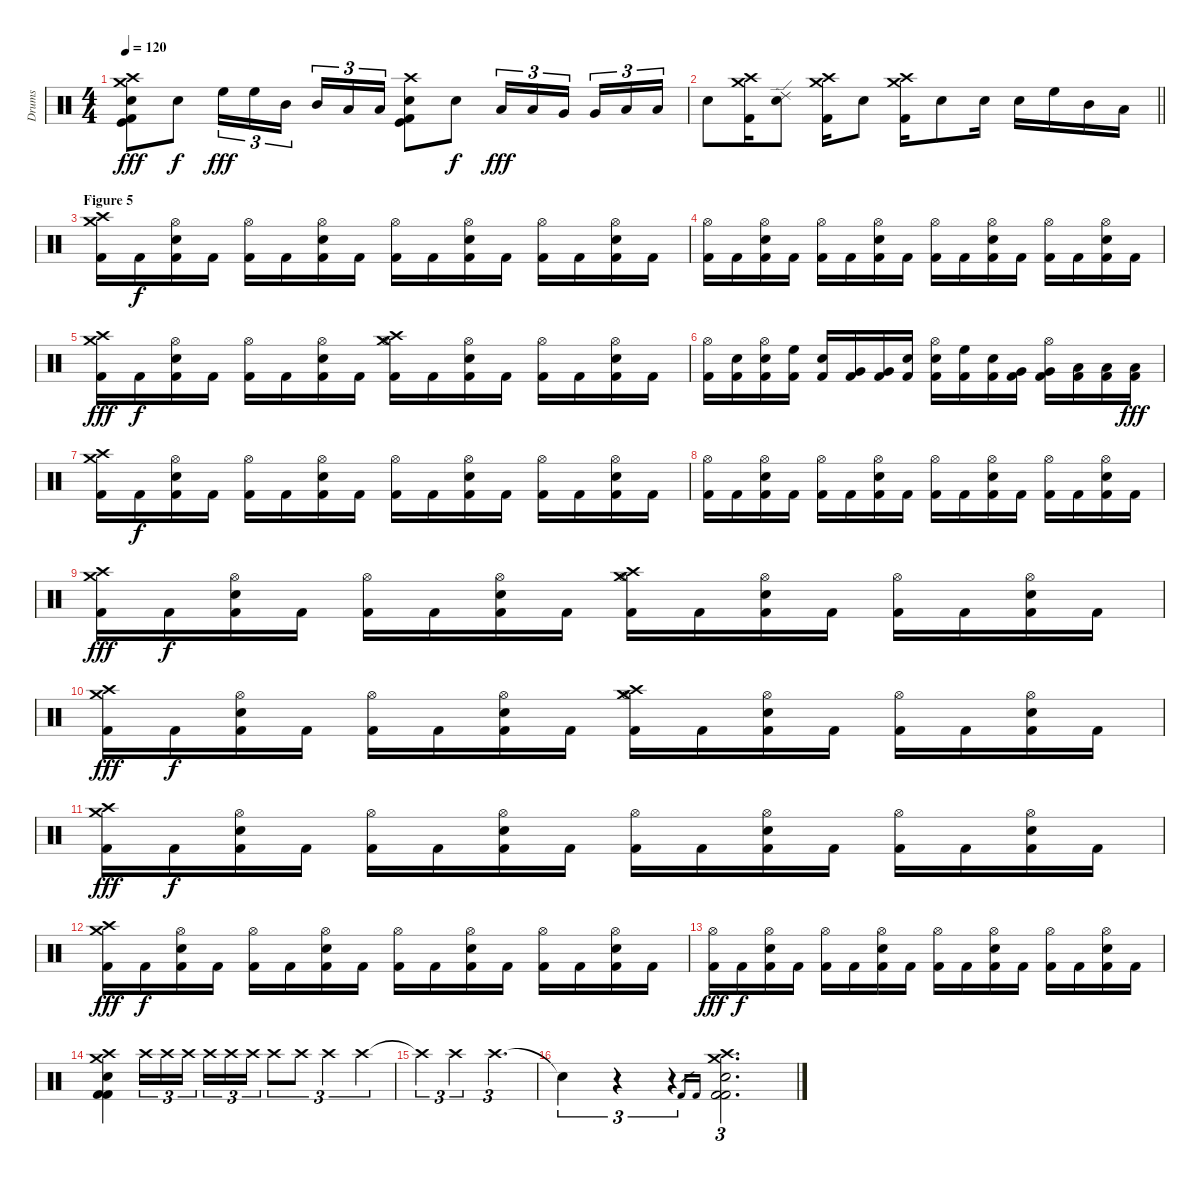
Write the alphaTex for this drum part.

\track ("Drums" "Drums") {instrument percussion}
\staff {score}
\articulation defaults
\ts (4 4)
\tempo 120
\clef neutral
\ks c
("Crash medium (hit)" "Crash high (hit)" "Electric Snare (hit)" "Kick (hit)" "Kick (hit) 2").8{dy fff} "Electric Snare (hit)".8{dy f} "High Floor Tom (hit)".16{tu (3 2) dy fff} "High Floor Tom (hit)".16{tu (3 2)} "Mid Tom (hit)".16{tu (3 2) beam splitsecondary} "Mid Tom (hit)".16{tu (3 2)} "Low Tom (hit)".16{tu (3 2)} "Low Tom (hit)".16{tu (3 2)} ("Crash high (hit)" "Electric Snare (hit)" "Kick (hit)" "Kick (hit) 2").8 "Electric Snare (hit)".8{dy f} "Low Tom (hit)".16{tu (3 2) dy fff} "Low Tom (hit)".16{tu (3 2)} "Very Low Tom (hit)".16{tu (3 2) beam splitsecondary} "Very Low Tom (hit)".16{tu (3 2)} "Low Floor Tom (hit)".16{tu (3 2)} "Low Floor Tom (hit)".16{tu (3 2)} |
\barLineRight lightlight "Electric Snare (hit)".8
("Crash high (hit)" "Crash medium (hit)" "Kick (hit) 2").16 ("Ride (edge) 2" "Electric Snare (hit)").8 ("Crash high (hit)" "Crash medium (hit)" "Kick (hit) 2").16 "Electric Snare (hit)".8 ("Crash medium (hit)" "Crash high (hit)" "Kick (hit) 2").16 "Electric Snare (hit)".8 "Electric Snare (hit)".16 "Electric Snare (hit)".16 "High Floor Tom (hit)".16 "Mid Tom (hit)".16 "Low Tom (hit)".16 |
\section ("" "Figure 5")
("Crash high (hit)" "Crash medium (hit)" "Kick (hit) 2").16 "Kick (hit) 2".16{dy f} ("Hi-Hat (open)" "Electric Snare (hit)" "Kick (hit) 2").16 "Kick (hit) 2".16 ("Hi-Hat (open)" "Kick (hit) 2").16 "Kick (hit) 2".16 ("Hi-Hat (open)" "Electric Snare (hit)" "Kick (hit) 2").16 "Kick (hit) 2".16 ("Hi-Hat (open)" "Kick (hit) 2").16 "Kick (hit) 2".16 ("Hi-Hat (open)" "Electric Snare (hit)" "Kick (hit) 2").16 "Kick (hit) 2".16 ("Hi-Hat (open)" "Kick (hit) 2").16 "Kick (hit) 2".16 ("Hi-Hat (open)" "Electric Snare (hit)" "Kick (hit) 2").16 "Kick (hit) 2".16 |
("Hi-Hat (open)" "Kick (hit) 2").16 "Kick (hit) 2".16 ("Hi-Hat (open)" "Electric Snare (hit)" "Kick (hit) 2").16 "Kick (hit) 2".16 ("Hi-Hat (open)" "Kick (hit) 2").16 "Kick (hit) 2".16 ("Hi-Hat (open)" "Electric Snare (hit)" "Kick (hit) 2").16 "Kick (hit) 2".16 ("Hi-Hat (open)" "Kick (hit) 2").16 "Kick (hit) 2".16 ("Hi-Hat (open)" "Electric Snare (hit)" "Kick (hit) 2").16 "Kick (hit) 2".16 ("Hi-Hat (open)" "Kick (hit) 2").16 "Kick (hit) 2".16 ("Hi-Hat (open)" "Electric Snare (hit)" "Kick (hit) 2").16 "Kick (hit) 2".16 |
("Crash high (hit)" "Crash medium (hit)" "Kick (hit) 2").16{dy fff} "Kick (hit) 2".16{dy f} ("Hi-Hat (open)" "Electric Snare (hit)" "Kick (hit) 2").16 "Kick (hit) 2".16 ("Hi-Hat (open)" "Kick (hit) 2").16 "Kick (hit) 2".16 ("Hi-Hat (open)" "Electric Snare (hit)" "Kick (hit) 2").16 "Kick (hit) 2".16 ("Crash medium (hit)" "Hi-Hat (open)" "Crash high (hit)" "Kick (hit) 2").16 "Kick (hit) 2".16 ("Hi-Hat (open)" "Electric Snare (hit)" "Kick (hit) 2").16 "Kick (hit) 2".16 ("Hi-Hat (open)" "Kick (hit) 2").16 "Kick (hit) 2".16 ("Hi-Hat (open)" "Electric Snare (hit)" "Kick (hit) 2").16 "Kick (hit) 2".16 |
("Hi-Hat (open)" "Kick (hit) 2").16 ("Electric Snare (hit)" "Kick (hit) 2").16 ("Hi-Hat (open)" "Electric Snare (hit)" "Kick (hit) 2").16 ("High Floor Tom (hit)" "Kick (hit) 2").16 ("Electric Snare (hit)" "Kick (hit) 2").16 ("Very Low Tom (hit)" "Kick (hit) 2").16 ("Very Low Tom (hit)" "Kick (hit) 2").16 ("Electric Snare (hit)" "Kick (hit) 2").16 ("Hi-Hat (open)" "Electric Snare (hit)" "Kick (hit) 2").16 ("High Floor Tom (hit)" "Kick (hit) 2").16 ("Electric Snare (hit)" "Kick (hit) 2").16 ("Very Low Tom (hit)" "Kick (hit) 2").16 ("Hi-Hat (open)" "Very Low Tom (hit)" "Kick (hit) 2").16 ("Low Tom (hit)" "Kick (hit) 2").16 ("Low Tom (hit)" "Kick (hit) 2").16 ("Low Floor Tom (hit)" "Kick (hit) 2").16{dy fff} |
("Crash high (hit)" "Crash medium (hit)" "Kick (hit) 2").16 "Kick (hit) 2".16{dy f} ("Hi-Hat (open)" "Electric Snare (hit)" "Kick (hit) 2").16 "Kick (hit) 2".16 ("Hi-Hat (open)" "Kick (hit) 2").16 "Kick (hit) 2".16 ("Hi-Hat (open)" "Electric Snare (hit)" "Kick (hit) 2").16 "Kick (hit) 2".16 ("Hi-Hat (open)" "Kick (hit) 2").16 "Kick (hit) 2".16 ("Hi-Hat (open)" "Electric Snare (hit)" "Kick (hit) 2").16 "Kick (hit) 2".16 ("Hi-Hat (open)" "Kick (hit) 2").16 "Kick (hit) 2".16 ("Hi-Hat (open)" "Electric Snare (hit)" "Kick (hit) 2").16 "Kick (hit) 2".16 |
("Hi-Hat (open)" "Kick (hit) 2").16 "Kick (hit) 2".16 ("Hi-Hat (open)" "Electric Snare (hit)" "Kick (hit) 2").16 "Kick (hit) 2".16 ("Hi-Hat (open)" "Kick (hit) 2").16 "Kick (hit) 2".16 ("Hi-Hat (open)" "Electric Snare (hit)" "Kick (hit) 2").16 "Kick (hit) 2".16 ("Hi-Hat (open)" "Kick (hit) 2").16 "Kick (hit) 2".16 ("Hi-Hat (open)" "Electric Snare (hit)" "Kick (hit) 2").16 "Kick (hit) 2".16 ("Hi-Hat (open)" "Kick (hit) 2").16 "Kick (hit) 2".16 ("Hi-Hat (open)" "Electric Snare (hit)" "Kick (hit) 2").16 "Kick (hit) 2".16 |
("Crash high (hit)" "Crash medium (hit)" "Kick (hit) 2").16{dy fff} "Kick (hit) 2".16{dy f} ("Hi-Hat (open)" "Electric Snare (hit)" "Kick (hit) 2").16 "Kick (hit) 2".16 ("Hi-Hat (open)" "Kick (hit) 2").16 "Kick (hit) 2".16 ("Hi-Hat (open)" "Electric Snare (hit)" "Kick (hit) 2").16 "Kick (hit) 2".16 ("Crash medium (hit)" "Hi-Hat (open)" "Crash high (hit)" "Kick (hit) 2").16 "Kick (hit) 2".16 ("Hi-Hat (open)" "Electric Snare (hit)" "Kick (hit) 2").16 "Kick (hit) 2".16 ("Hi-Hat (open)" "Kick (hit) 2").16 "Kick (hit) 2".16 ("Hi-Hat (open)" "Electric Snare (hit)" "Kick (hit) 2").16 "Kick (hit) 2".16 |
("Crash high (hit)" "Crash medium (hit)" "Kick (hit) 2").16{dy fff} "Kick (hit) 2".16{dy f} ("Hi-Hat (open)" "Electric Snare (hit)" "Kick (hit) 2").16 "Kick (hit) 2".16 ("Hi-Hat (open)" "Kick (hit) 2").16 "Kick (hit) 2".16 ("Hi-Hat (open)" "Electric Snare (hit)" "Kick (hit) 2").16 "Kick (hit) 2".16 ("Crash high (hit)" "Hi-Hat (open)" "Crash medium (hit)" "Kick (hit) 2").16 "Kick (hit) 2".16 ("Hi-Hat (open)" "Electric Snare (hit)" "Kick (hit) 2").16 "Kick (hit) 2".16 ("Hi-Hat (open)" "Kick (hit) 2").16 "Kick (hit) 2".16 ("Hi-Hat (open)" "Electric Snare (hit)" "Kick (hit) 2").16 "Kick (hit) 2".16 |
("Crash high (hit)" "Crash medium (hit)" "Kick (hit) 2").16{dy fff} "Kick (hit) 2".16{dy f} ("Hi-Hat (open)" "Electric Snare (hit)" "Kick (hit) 2").16 "Kick (hit) 2".16 ("Hi-Hat (open)" "Kick (hit) 2").16 "Kick (hit) 2".16 ("Hi-Hat (open)" "Electric Snare (hit)" "Kick (hit) 2").16 "Kick (hit) 2".16 ("Hi-Hat (open)" "Kick (hit) 2").16 "Kick (hit) 2".16 ("Hi-Hat (open)" "Electric Snare (hit)" "Kick (hit) 2").16 "Kick (hit) 2".16 ("Hi-Hat (open)" "Kick (hit) 2").16 "Kick (hit) 2".16 ("Hi-Hat (open)" "Electric Snare (hit)" "Kick (hit) 2").16 "Kick (hit) 2".16 |
("Crash high (hit)" "Crash medium (hit)" "Kick (hit) 2").16{dy fff} "Kick (hit) 2".16{dy f} ("Hi-Hat (open)" "Electric Snare (hit)" "Kick (hit) 2").16 "Kick (hit) 2".16 ("Hi-Hat (open)" "Kick (hit) 2").16 "Kick (hit) 2".16 ("Hi-Hat (open)" "Electric Snare (hit)" "Kick (hit) 2").16 "Kick (hit) 2".16 ("Hi-Hat (open)" "Kick (hit) 2").16 "Kick (hit) 2".16 ("Hi-Hat (open)" "Electric Snare (hit)" "Kick (hit) 2").16 "Kick (hit) 2".16 ("Hi-Hat (open)" "Kick (hit) 2").16 "Kick (hit) 2".16 ("Hi-Hat (open)" "Electric Snare (hit)" "Kick (hit) 2").16 "Kick (hit) 2".16 |
("Hi-Hat (open)" "Kick (hit) 2").16{dy fff} "Kick (hit) 2".16{dy f} ("Hi-Hat (open)" "Electric Snare (hit)" "Kick (hit) 2").16 "Kick (hit) 2".16 ("Hi-Hat (open)" "Kick (hit) 2").16 "Kick (hit) 2".16 ("Hi-Hat (open)" "Electric Snare (hit)" "Kick (hit) 2").16 "Kick (hit) 2".16 ("Hi-Hat (open)" "Kick (hit) 2").16 "Kick (hit) 2".16 ("Hi-Hat (open)" "Electric Snare (hit)" "Kick (hit) 2").16 "Kick (hit) 2".16 ("Hi-Hat (open)" "Kick (hit) 2").16 "Kick (hit) 2".16 ("Hi-Hat (open)" "Electric Snare (hit)" "Kick (hit) 2").16 "Kick (hit) 2".16 |
("Crash medium (hit)" "Crash high (hit)" "Electric Snare (hit)" "Kick (hit) 2" "Kick (hit) 2").4 "Crash high (hit)".16{tu (3 2)} "Crash high (hit)".16{tu (3 2)} "Crash high (hit)".16{tu (3 2) beam splitsecondary} "Crash high (hit)".16{tu (3 2)} "Crash high (hit)".16{tu (3 2)} "Crash high (hit)".16{tu (3 2)} "Crash high (hit)".8{tu (3 2)} "Crash high (hit)".8{tu (3 2)} "Crash high (hit)".4{tu (3 2)} "Crash high (hit)".4{tu (3 2)} |
"Crash high (hit)"{t}.4{tu (3 2)} "Crash high (hit)".2{tu (3 2)} "Crash high (hit)".2{d tu (3 2)} |
"Snare (hit)"{t}.4{tu (3 2)} r.4{tu (3 2)} r.4{tu (3 2)} "Kick (hit) 2".16{gr} "Kick (hit) 2".16{gr} ("Crash high (hit)" "Crash medium (hit)" "Electric Snare (hit)" "Kick (hit) 2" "Kick (hit) 2").2{d tu (3 2)}
